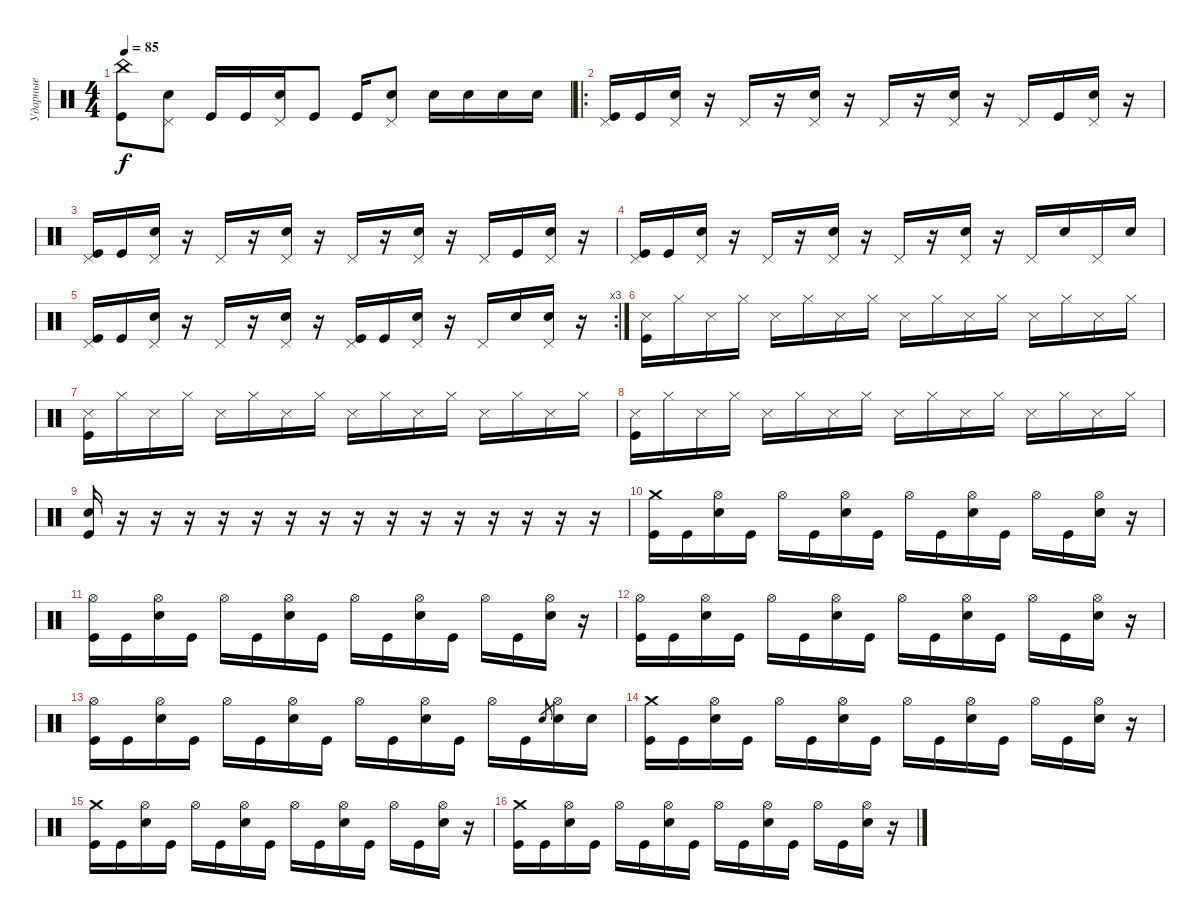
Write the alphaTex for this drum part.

\track ("Ударные" "Ударные") {instrument percussion}
\staff {score}
\articulation defaults
\ts (4 4)
\tempo 85
\clef neutral
\ks c
("China (hit)" "Kick (hit)").8{dy f} ("Pedal Hi-Hat (hit)" "Electric Snare (hit)").8 "Kick (hit)".16 "Kick (hit)".16 ("Pedal Hi-Hat (hit)" "Electric Snare (hit)").16 "Kick (hit)".8 "Kick (hit)".16 ("Pedal Hi-Hat (hit)" "Electric Snare (hit)").8 "Electric Snare (hit)".16 "Electric Snare (hit)".16 "Electric Snare (hit)".16 "Electric Snare (hit)".16 |
\ro
("Pedal Hi-Hat (hit)" "Kick (hit)").16 "Kick (hit)".16 ("Pedal Hi-Hat (hit)" "Electric Snare (hit)").16 r.16 "Pedal Hi-Hat (hit)".16 r.16 ("Pedal Hi-Hat (hit)" "Electric Snare (hit)").16 r.16 "Pedal Hi-Hat (hit)".16 r.16 ("Pedal Hi-Hat (hit)" "Electric Snare (hit)").16 r.16 "Pedal Hi-Hat (hit)".16 "Kick (hit)".16 ("Pedal Hi-Hat (hit)" "Electric Snare (hit)").16 r.16 |
("Pedal Hi-Hat (hit)" "Kick (hit)").16 "Kick (hit)".16 ("Pedal Hi-Hat (hit)" "Electric Snare (hit)").16 r.16 "Pedal Hi-Hat (hit)".16 r.16 ("Pedal Hi-Hat (hit)" "Electric Snare (hit)").16 r.16 "Pedal Hi-Hat (hit)".16 r.16 ("Pedal Hi-Hat (hit)" "Electric Snare (hit)").16 r.16 "Pedal Hi-Hat (hit)".16 "Kick (hit)".16 ("Pedal Hi-Hat (hit)" "Electric Snare (hit)").16 r.16 |
("Pedal Hi-Hat (hit)" "Kick (hit)").16 "Kick (hit)".16 ("Pedal Hi-Hat (hit)" "Electric Snare (hit)").16 r.16 "Pedal Hi-Hat (hit)".16 r.16 ("Pedal Hi-Hat (hit)" "Electric Snare (hit)").16 r.16 "Pedal Hi-Hat (hit)".16 r.16 ("Pedal Hi-Hat (hit)" "Electric Snare (hit)").16 r.16 "Pedal Hi-Hat (hit)".16 "Electric Snare (hit)".16 "Pedal Hi-Hat (hit)".16 "Electric Snare (hit)".16 |
\rc 3
("Pedal Hi-Hat (hit)" "Kick (hit)").16 "Kick (hit)".16 ("Pedal Hi-Hat (hit)" "Electric Snare (hit)").16 r.16 "Pedal Hi-Hat (hit)".16 r.16 ("Pedal Hi-Hat (hit)" "Electric Snare (hit)").16 r.16 ("Pedal Hi-Hat (hit)" "Kick (hit)").16 "Kick (hit)".16 ("Pedal Hi-Hat (hit)" "Electric Snare (hit)").16 r.16 "Pedal Hi-Hat (hit)".16 "Electric Snare (hit)".16 ("Pedal Hi-Hat (hit)" "Electric Snare (hit)").16 r.16 |
("Snare (side stick) 3" "Kick (hit)").16 "Hi-Hat (closed)".16 "Snare (side stick) 3".16 "Hi-Hat (closed)".16 "Snare (side stick) 3".16 "Hi-Hat (closed)".16 "Snare (side stick) 3".16 "Hi-Hat (closed)".16 "Snare (side stick) 3".16 "Hi-Hat (closed)".16 "Snare (side stick) 3".16 "Hi-Hat (closed)".16 "Snare (side stick) 3".16 "Hi-Hat (closed)".16 "Snare (side stick) 3".16 "Hi-Hat (closed)".16 |
("Snare (side stick) 3" "Kick (hit)").16 "Hi-Hat (closed)".16 "Snare (side stick) 3".16 "Hi-Hat (closed)".16 "Snare (side stick) 3".16 "Hi-Hat (closed)".16 "Snare (side stick) 3".16 "Hi-Hat (closed)".16 "Snare (side stick) 3".16 "Hi-Hat (closed)".16 "Snare (side stick) 3".16 "Hi-Hat (closed)".16 "Snare (side stick) 3".16 "Hi-Hat (closed)".16 "Snare (side stick) 3".16 "Hi-Hat (closed)".16 |
("Snare (side stick) 3" "Kick (hit)").16 "Hi-Hat (closed)".16 "Snare (side stick) 3".16 "Hi-Hat (closed)".16 "Snare (side stick) 3".16 "Hi-Hat (closed)".16 "Snare (side stick) 3".16 "Hi-Hat (closed)".16 "Snare (side stick) 3".16 "Hi-Hat (closed)".16 "Snare (side stick) 3".16 "Hi-Hat (closed)".16 "Snare (side stick) 3".16 "Hi-Hat (closed)".16 "Snare (side stick) 3".16 "Hi-Hat (closed)".16 |
("Electric Snare (hit)" "Kick (hit)").16 r.16 r.16 r.16 r.16 r.16 r.16 r.16 r.16 r.16 r.16 r.16 r.16 r.16 r.16 r.16 |
("Crash medium (hit)" "Kick (hit)").16 "Kick (hit)".16 ("Hi-Hat (open)" "Electric Snare (hit)").16 "Kick (hit)".16 "Hi-Hat (open)".16 "Kick (hit)".16 ("Hi-Hat (open)" "Electric Snare (hit)").16 "Kick (hit)".16 "Hi-Hat (open)".16 "Kick (hit)".16 ("Hi-Hat (open)" "Electric Snare (hit)").16 "Kick (hit)".16 "Hi-Hat (open)".16 "Kick (hit)".16 ("Hi-Hat (open)" "Electric Snare (hit)").16 r.16 |
("Hi-Hat (open)" "Kick (hit)").16 "Kick (hit)".16 ("Hi-Hat (open)" "Electric Snare (hit)").16 "Kick (hit)".16 "Hi-Hat (open)".16 "Kick (hit)".16 ("Hi-Hat (open)" "Electric Snare (hit)").16 "Kick (hit)".16 "Hi-Hat (open)".16 "Kick (hit)".16 ("Hi-Hat (open)" "Electric Snare (hit)").16 "Kick (hit)".16 "Hi-Hat (open)".16 "Kick (hit)".16 ("Hi-Hat (open)" "Electric Snare (hit)").16 r.16 |
("Hi-Hat (open)" "Kick (hit)").16 "Kick (hit)".16 ("Hi-Hat (open)" "Electric Snare (hit)").16 "Kick (hit)".16 "Hi-Hat (open)".16 "Kick (hit)".16 ("Hi-Hat (open)" "Electric Snare (hit)").16 "Kick (hit)".16 "Hi-Hat (open)".16 "Kick (hit)".16 ("Hi-Hat (open)" "Electric Snare (hit)").16 "Kick (hit)".16 "Hi-Hat (open)".16 "Kick (hit)".16 ("Hi-Hat (open)" "Electric Snare (hit)").16 r.16 |
("Hi-Hat (open)" "Kick (hit)").16 "Kick (hit)".16 ("Hi-Hat (open)" "Electric Snare (hit)").16 "Kick (hit)".16 "Hi-Hat (open)".16 "Kick (hit)".16 ("Hi-Hat (open)" "Electric Snare (hit)").16 "Kick (hit)".16 "Hi-Hat (open)".16 "Kick (hit)".16 ("Hi-Hat (open)" "Electric Snare (hit)").16 "Kick (hit)".16 "Hi-Hat (open)".16 "Kick (hit)".16 "Electric Snare (hit)".8{gr} ("Hi-Hat (open)" "Electric Snare (hit)").16 "Electric Snare (hit)".16 |
("Crash medium (hit)" "Kick (hit)").16 "Kick (hit)".16 ("Hi-Hat (open)" "Electric Snare (hit)").16 "Kick (hit)".16 "Hi-Hat (open)".16 "Kick (hit)".16 ("Hi-Hat (open)" "Electric Snare (hit)").16 "Kick (hit)".16 "Hi-Hat (open)".16 "Kick (hit)".16 ("Hi-Hat (open)" "Electric Snare (hit)").16 "Kick (hit)".16 "Hi-Hat (open)".16 "Kick (hit)".16 ("Hi-Hat (open)" "Electric Snare (hit)").16 r.16 |
("Crash medium (hit)" "Kick (hit)").16 "Kick (hit)".16 ("Hi-Hat (open)" "Electric Snare (hit)").16 "Kick (hit)".16 "Hi-Hat (open)".16 "Kick (hit)".16 ("Hi-Hat (open)" "Electric Snare (hit)").16 "Kick (hit)".16 "Hi-Hat (open)".16 "Kick (hit)".16 ("Hi-Hat (open)" "Electric Snare (hit)").16 "Kick (hit)".16 "Hi-Hat (open)".16 "Kick (hit)".16 ("Hi-Hat (open)" "Electric Snare (hit)").16 r.16 |
("Crash medium (hit)" "Kick (hit)").16 "Kick (hit)".16 ("Hi-Hat (open)" "Electric Snare (hit)").16 "Kick (hit)".16 "Hi-Hat (open)".16 "Kick (hit)".16 ("Hi-Hat (open)" "Electric Snare (hit)").16 "Kick (hit)".16 "Hi-Hat (open)".16 "Kick (hit)".16 ("Hi-Hat (open)" "Electric Snare (hit)").16 "Kick (hit)".16 "Hi-Hat (open)".16 "Kick (hit)".16 ("Hi-Hat (open)" "Electric Snare (hit)").16 r.16
